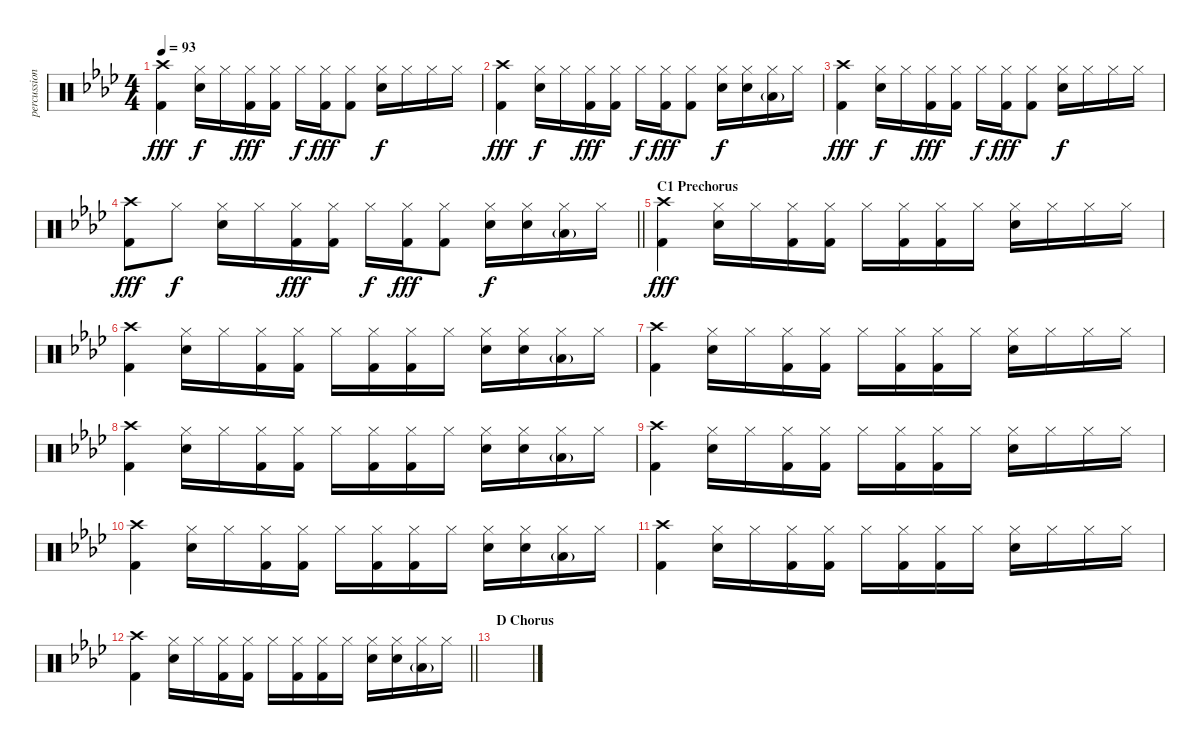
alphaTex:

\track ("percussion" "percussion") {instrument percussion}
\staff {score}
\articulation defaults
\ts (4 4)
\tempo 93
\clef neutral
\ks fminor
("Crash high (hit)" "Kick (hit) 2").4{dy fff} ("Snare (hit) 2" "Hi-Hat (closed)").16{dy f} "Hi-Hat (closed)".16 ("Hi-Hat (closed)" "Kick (hit) 2").16{dy fff} ("Hi-Hat (closed)" "Kick (hit) 2").16 "Hi-Hat (closed)".16{dy f} ("Hi-Hat (closed)" "Kick (hit) 2").16{dy fff} ("Hi-Hat (closed)" "Kick (hit) 2").8 ("Snare (hit) 2" "Hi-Hat (closed)").16{dy f} "Hi-Hat (closed)".16 "Hi-Hat (closed)".16 "Hi-Hat (closed)".16 |
("Crash high (hit)" "Kick (hit) 2").4{dy fff} ("Snare (hit) 2" "Hi-Hat (closed)").16{dy f} "Hi-Hat (closed)".16 ("Hi-Hat (closed)" "Kick (hit) 2").16{dy fff} ("Hi-Hat (closed)" "Kick (hit) 2").16 "Hi-Hat (closed)".16{dy f} ("Hi-Hat (closed)" "Kick (hit) 2").16{dy fff} ("Hi-Hat (closed)" "Kick (hit) 2").8 ("Snare (hit) 2" "Hi-Hat (closed)").16{dy f} ("Snare (hit) 2" "Hi-Hat (closed)").16 ("Low Floor Tom (hit)"{g} "Hi-Hat (closed)").16 "Hi-Hat (closed)".16 |
("Crash high (hit)" "Kick (hit) 2").4{dy fff} ("Snare (hit) 2" "Hi-Hat (closed)").16{dy f} "Hi-Hat (closed)".16 ("Hi-Hat (closed)" "Kick (hit) 2").16{dy fff} ("Hi-Hat (closed)" "Kick (hit) 2").16 "Hi-Hat (closed)".16{dy f} ("Hi-Hat (closed)" "Kick (hit) 2").16{dy fff} ("Hi-Hat (closed)" "Kick (hit) 2").8 ("Snare (hit) 2" "Hi-Hat (closed)").16{dy f} "Hi-Hat (closed)".16 "Hi-Hat (closed)".16 "Hi-Hat (closed)".16 |
\barLineRight lightlight
("Crash high (hit)" "Kick (hit) 2").8{dy fff} "Hi-Hat (closed)".8{dy f} ("Snare (hit) 2" "Hi-Hat (closed)").16 "Hi-Hat (closed)".16 ("Hi-Hat (closed)" "Kick (hit) 2").16{dy fff} ("Hi-Hat (closed)" "Kick (hit) 2").16 "Hi-Hat (closed)".16{dy f} ("Hi-Hat (closed)" "Kick (hit) 2").16{dy fff} ("Hi-Hat (closed)" "Kick (hit) 2").8 ("Snare (hit) 2" "Hi-Hat (closed)").16{dy f} ("Snare (hit) 2" "Hi-Hat (closed)").16 ("Low Floor Tom (hit)"{g} "Hi-Hat (closed)").16 "Hi-Hat (closed)".16 |
\section ("" "C1 Prechorus")
("Crash high (hit)" "Kick (hit) 2").4{dy fff} ("Snare (hit) 2" "Hi-Hat (closed)").16 "Hi-Hat (closed)".16 ("Hi-Hat (closed)" "Kick (hit) 2").16 ("Hi-Hat (closed)" "Kick (hit) 2").16 "Hi-Hat (closed)".16 ("Hi-Hat (closed)" "Kick (hit) 2").16 ("Hi-Hat (closed)" "Kick (hit) 2").16 "Hi-Hat (closed)".16 ("Snare (hit) 2" "Hi-Hat (closed)").16 "Hi-Hat (closed)".16 "Hi-Hat (closed)".16 "Hi-Hat (closed)".16 |
("Crash high (hit)" "Kick (hit) 2").4 ("Snare (hit) 2" "Hi-Hat (closed)").16 "Hi-Hat (closed)".16 ("Hi-Hat (closed)" "Kick (hit) 2").16 ("Hi-Hat (closed)" "Kick (hit) 2").16 "Hi-Hat (closed)".16 ("Hi-Hat (closed)" "Kick (hit) 2").16 ("Hi-Hat (closed)" "Kick (hit) 2").16 "Hi-Hat (closed)".16 ("Snare (hit) 2" "Hi-Hat (closed)").16 ("Snare (hit) 2" "Hi-Hat (closed)").16 ("Low Floor Tom (hit)"{g} "Hi-Hat (closed)").16 "Hi-Hat (closed)".16 |
("Crash high (hit)" "Kick (hit) 2").4 ("Snare (hit) 2" "Hi-Hat (closed)").16 "Hi-Hat (closed)".16 ("Hi-Hat (closed)" "Kick (hit) 2").16 ("Hi-Hat (closed)" "Kick (hit) 2").16 "Hi-Hat (closed)".16 ("Hi-Hat (closed)" "Kick (hit) 2").16 ("Hi-Hat (closed)" "Kick (hit) 2").16 "Hi-Hat (closed)".16 ("Snare (hit) 2" "Hi-Hat (closed)").16 "Hi-Hat (closed)".16 "Hi-Hat (closed)".16 "Hi-Hat (closed)".16 |
("Crash high (hit)" "Kick (hit) 2").4 ("Snare (hit) 2" "Hi-Hat (closed)").16 "Hi-Hat (closed)".16 ("Hi-Hat (closed)" "Kick (hit) 2").16 ("Hi-Hat (closed)" "Kick (hit) 2").16 "Hi-Hat (closed)".16 ("Hi-Hat (closed)" "Kick (hit) 2").16 ("Hi-Hat (closed)" "Kick (hit) 2").16 "Hi-Hat (closed)".16 ("Snare (hit) 2" "Hi-Hat (closed)").16 ("Snare (hit) 2" "Hi-Hat (closed)").16 ("Low Floor Tom (hit)"{g} "Hi-Hat (closed)").16 "Hi-Hat (closed)".16 |
("Crash high (hit)" "Kick (hit) 2").4 ("Snare (hit) 2" "Hi-Hat (closed)").16 "Hi-Hat (closed)".16 ("Hi-Hat (closed)" "Kick (hit) 2").16 ("Hi-Hat (closed)" "Kick (hit) 2").16 "Hi-Hat (closed)".16 ("Hi-Hat (closed)" "Kick (hit) 2").16 ("Hi-Hat (closed)" "Kick (hit) 2").16 "Hi-Hat (closed)".16 ("Snare (hit) 2" "Hi-Hat (closed)").16 "Hi-Hat (closed)".16 "Hi-Hat (closed)".16 "Hi-Hat (closed)".16 |
("Crash high (hit)" "Kick (hit) 2").4 ("Snare (hit) 2" "Hi-Hat (closed)").16 "Hi-Hat (closed)".16 ("Hi-Hat (closed)" "Kick (hit) 2").16 ("Hi-Hat (closed)" "Kick (hit) 2").16 "Hi-Hat (closed)".16 ("Hi-Hat (closed)" "Kick (hit) 2").16 ("Hi-Hat (closed)" "Kick (hit) 2").16 "Hi-Hat (closed)".16 ("Snare (hit) 2" "Hi-Hat (closed)").16 ("Snare (hit) 2" "Hi-Hat (closed)").16 ("Low Floor Tom (hit)"{g} "Hi-Hat (closed)").16 "Hi-Hat (closed)".16 |
("Crash high (hit)" "Kick (hit) 2").4 ("Snare (hit) 2" "Hi-Hat (closed)").16 "Hi-Hat (closed)".16 ("Hi-Hat (closed)" "Kick (hit) 2").16 ("Hi-Hat (closed)" "Kick (hit) 2").16 "Hi-Hat (closed)".16 ("Hi-Hat (closed)" "Kick (hit) 2").16 ("Hi-Hat (closed)" "Kick (hit) 2").16 "Hi-Hat (closed)".16 ("Snare (hit) 2" "Hi-Hat (closed)").16 "Hi-Hat (closed)".16 "Hi-Hat (closed)".16 "Hi-Hat (closed)".16 |
\barLineRight lightlight
("Crash high (hit)" "Kick (hit) 2").4 ("Snare (hit) 2" "Hi-Hat (closed)").16 "Hi-Hat (closed)".16 ("Hi-Hat (closed)" "Kick (hit) 2").16 ("Hi-Hat (closed)" "Kick (hit) 2").16 "Hi-Hat (closed)".16 ("Hi-Hat (closed)" "Kick (hit) 2").16 ("Hi-Hat (closed)" "Kick (hit) 2").16 "Hi-Hat (closed)".16 ("Snare (hit) 2" "Hi-Hat (closed)").16 ("Snare (hit) 2" "Hi-Hat (closed)").16 ("Low Floor Tom (hit)"{g} "Hi-Hat (closed)").16 "Hi-Hat (closed)".16 |
\section ("" "D Chorus")
